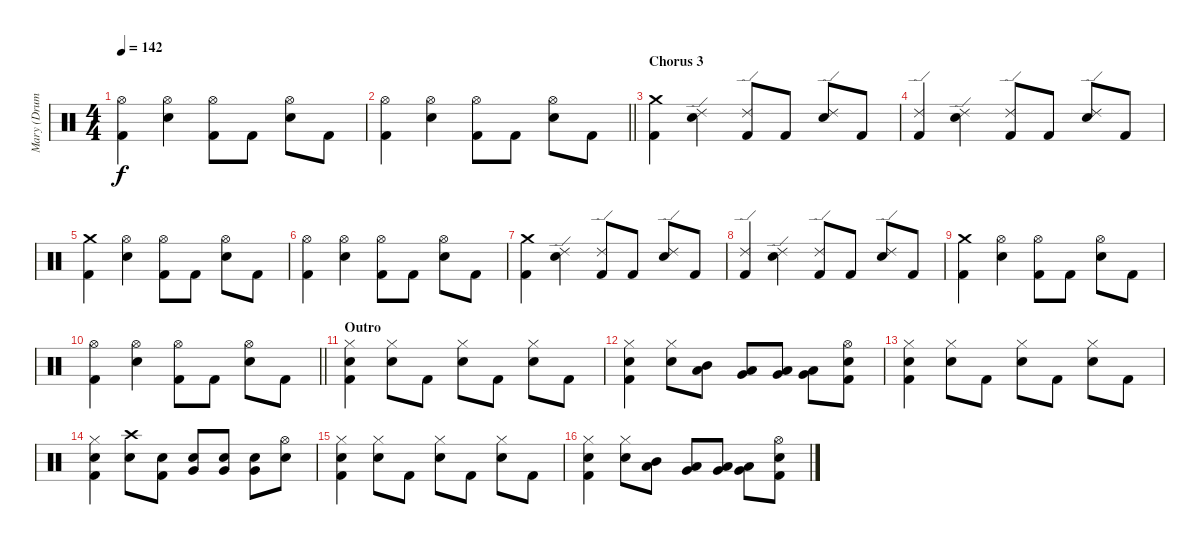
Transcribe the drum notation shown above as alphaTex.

\track ("Mary (Drums)" "Mary (Drum") {instrument percussion}
\staff {score}
\articulation defaults
\ts (4 4)
\tempo 142
\clef neutral
\ks c
("Hi-Hat (open)" "Kick (hit) 2").4{dy f} ("Hi-Hat (open)" "Snare (hit) 2").4 ("Hi-Hat (open)" "Kick (hit) 2").8 "Kick (hit) 2".8 ("Hi-Hat (open)" "Snare (hit) 2").8 "Kick (hit) 2".8 |
\barLineRight lightlight
("Hi-Hat (open)" "Kick (hit) 2").4 ("Hi-Hat (open)" "Snare (hit) 2").4 ("Hi-Hat (open)" "Kick (hit) 2").8 "Kick (hit) 2".8 ("Hi-Hat (open)" "Snare (hit) 2").8 "Kick (hit) 2".8 |
\section ("" "Chorus 3")
("Crash medium (hit)" "Kick (hit) 2").4 ("Ride (edge) 2" "Snare (hit) 2").4 ("Ride (edge) 2" "Kick (hit) 2").8 "Kick (hit) 2".8 ("Ride (edge) 2" "Snare (hit) 2").8 "Kick (hit) 2".8 |
("Ride (edge) 2" "Kick (hit) 2").4 ("Ride (edge) 2" "Snare (hit) 2").4 ("Ride (edge) 2" "Kick (hit) 2").8 "Kick (hit) 2".8 ("Ride (edge) 2" "Snare (hit) 2").8 "Kick (hit) 2".8 |
("Crash medium (hit)" "Kick (hit) 2").4 ("Hi-Hat (open)" "Snare (hit) 2").4 ("Hi-Hat (open)" "Kick (hit) 2").8 "Kick (hit) 2".8 ("Hi-Hat (open)" "Snare (hit) 2").8 "Kick (hit) 2".8 |
("Hi-Hat (open)" "Kick (hit) 2").4 ("Hi-Hat (open)" "Snare (hit) 2").4 ("Hi-Hat (open)" "Kick (hit) 2").8 "Kick (hit) 2".8 ("Hi-Hat (open)" "Snare (hit) 2").8 "Kick (hit) 2".8 |
("Crash medium (hit)" "Kick (hit) 2").4 ("Ride (edge) 2" "Snare (hit) 2").4 ("Ride (edge) 2" "Kick (hit) 2").8 "Kick (hit) 2".8 ("Ride (edge) 2" "Snare (hit) 2").8 "Kick (hit) 2".8 |
("Ride (edge) 2" "Kick (hit) 2").4 ("Ride (edge) 2" "Snare (hit) 2").4 ("Ride (edge) 2" "Kick (hit) 2").8 "Kick (hit) 2".8 ("Ride (edge) 2" "Snare (hit) 2").8 "Kick (hit) 2".8 |
("Crash medium (hit)" "Kick (hit) 2").4 ("Hi-Hat (open)" "Snare (hit) 2").4 ("Hi-Hat (open)" "Kick (hit) 2").8 "Kick (hit) 2".8 ("Hi-Hat (open)" "Snare (hit) 2").8 "Kick (hit) 2".8 |
\barLineRight lightlight
("Hi-Hat (open)" "Kick (hit) 2").4 ("Hi-Hat (open)" "Snare (hit) 2").4 ("Hi-Hat (open)" "Kick (hit) 2").8 "Kick (hit) 2".8 ("Hi-Hat (open)" "Snare (hit) 2").8 "Kick (hit) 2".8 |
\section ("" "Outro")
("Hi-Hat (closed)" "Snare (hit) 2" "Kick (hit) 2").4 ("Hi-Hat (closed)" "Snare (hit) 2").8 "Kick (hit) 2".8 ("Hi-Hat (closed)" "Snare (hit) 2").8 "Kick (hit) 2".8 ("Hi-Hat (closed)" "Snare (hit) 2").8 "Kick (hit) 2".8 |
("Hi-Hat (closed)" "Snare (hit) 2" "Kick (hit) 2").4 ("Hi-Hat (closed)" "Snare (hit) 2").8 ("Mid Tom (hit)" "Low Tom (hit)").8 ("Very Low Tom (hit)" "Low Tom (hit)").8 ("Very Low Tom (hit)" "Low Floor Tom (hit)").8 ("Very Low Tom (hit)" "Low Floor Tom (hit)").8 ("Hi-Hat (open)" "Snare (hit) 2" "Kick (hit) 2").8 |
("Hi-Hat (closed)" "Snare (hit) 2" "Kick (hit) 2").4 ("Hi-Hat (closed)" "Snare (hit) 2").8 "Kick (hit) 2".8 ("Hi-Hat (closed)" "Snare (hit) 2").8 "Kick (hit) 2".8 ("Hi-Hat (closed)" "Snare (hit) 2").8 "Kick (hit) 2".8 |
("Hi-Hat (closed)" "Snare (hit) 2" "Kick (hit) 2").4 ("Crash high (hit)" "Snare (hit) 2").8 ("Snare (hit) 2" "Kick (hit) 2").8 ("Very Low Tom (hit)" "Snare (hit) 2").8 ("Very Low Tom (hit)" "Snare (hit) 2").8 ("Very Low Tom (hit)" "Snare (hit) 2").8 ("Hi-Hat (open)" "Snare (hit) 2").8 |
("Hi-Hat (closed)" "Snare (hit) 2" "Kick (hit) 2").4 ("Hi-Hat (closed)" "Snare (hit) 2").8 "Kick (hit) 2".8 ("Hi-Hat (closed)" "Snare (hit) 2").8 "Kick (hit) 2".8 ("Hi-Hat (closed)" "Snare (hit) 2").8 "Kick (hit) 2".8 |
("Hi-Hat (closed)" "Snare (hit) 2" "Kick (hit) 2").4 ("Hi-Hat (closed)" "Snare (hit) 2").8 ("Mid Tom (hit)" "Low Tom (hit)").8 ("Very Low Tom (hit)" "Low Tom (hit)").8 ("Very Low Tom (hit)" "Low Floor Tom (hit)").8 ("Very Low Tom (hit)" "Low Floor Tom (hit)").8 ("Hi-Hat (open)" "Snare (hit) 2" "Kick (hit) 2").8
